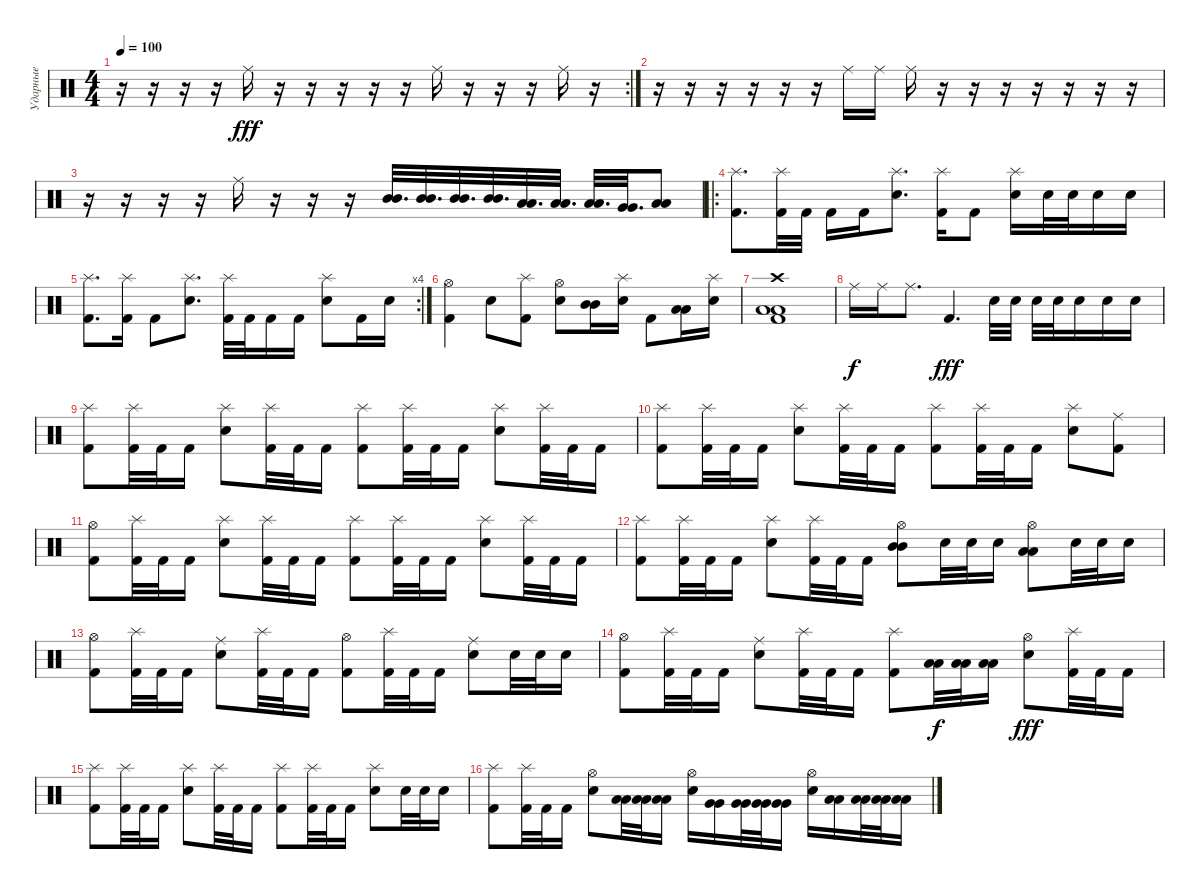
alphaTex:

\track ("Ударные" "Ударные") {instrument percussion}
\staff {score}
\articulation defaults
\rc 2
\ts (4 4)
\tempo 100
\clef neutral
\ks c
r.16{dy fff} r.16 r.16 r.16 "Ride (middle)".16 r.16 r.16 r.16 r.16 r.16 "Ride (middle)".16 r.16 r.16 r.16 "Ride (middle)".16 r.16 |
r.16 r.16 r.16 r.16 r.16 r.16 "Ride (middle)".16 "Ride (middle)".16 "Ride (middle)".16 r.16 r.16 r.16 r.16 r.16 r.16 r.16 |
r.16 r.16 r.16 r.16 "Ride (middle)".16 r.16 r.16 r.16 ("Mid Tom (hit)" "Mid Tom (hit)").32{d} ("Mid Tom (hit)" "Mid Tom (hit)").32{d} ("Mid Tom (hit)" "Mid Tom (hit)").32{d} ("Mid Tom (hit)" "Mid Tom (hit)").32{d} ("Low Tom (hit)" "Low Tom (hit)").32{d} ("Low Tom (hit)" "Low Tom (hit)").32{d} ("Low Tom (hit)" "Low Tom (hit)").32{d} ("Very Low Tom (hit)" "Very Low Tom (hit)").32{d} ("Low Floor Tom (hit)" "Low Floor Tom (hit)").8 |
\ro
("Splash (hit)" "Kick (hit) 2").8{d} ("Splash (hit)" "Kick (hit) 2").32 "Kick (hit) 2".32 "Kick (hit) 2".16 "Kick (hit) 2".16 ("Splash (hit)" "Electric Snare (hit)").8{d} ("Splash (hit)" "Kick (hit) 2").16 "Kick (hit) 2".8 ("Splash (hit)" "Electric Snare (hit)").16 "Electric Snare (hit)".32 "Electric Snare (hit)".32 "Electric Snare (hit)".16 "Electric Snare (hit)".16 |
\rc 4
("Splash (hit)" "Kick (hit) 2").8{d} ("Splash (hit)" "Kick (hit) 2").16 "Kick (hit) 2".8 ("Splash (hit)" "Electric Snare (hit)").8{d} ("Splash (hit)" "Kick (hit) 2").32 "Kick (hit) 2".32 "Kick (hit) 2".16 "Kick (hit) 2".16 ("Splash (hit)" "Electric Snare (hit)").8 "Kick (hit) 2".16 "Electric Snare (hit)".16 |
("Hi-Hat (open)" "Kick (hit) 2").4 "Electric Snare (hit)".8 ("Splash (hit)" "Kick (hit) 2").8 ("Hi-Hat (open)" "Electric Snare (hit)").8 ("Mid Tom (hit)" "Mid Tom (hit)").16 ("Splash (hit)" "Electric Snare (hit)").16 "Kick (hit) 2".8 ("Low Tom (hit)" "Low Tom (hit)").16 ("Splash (hit)" "Electric Snare (hit)").16 |
("Crash high (hit)" "Low Floor Tom (hit)" "Low Floor Tom (hit)" "Kick (hit) 2").1 |
"Ride (middle)".16{dy f} "Ride (middle)".16 "Ride (middle)".8{d} "Kick (hit) 2".4{d dy fff} "Electric Snare (hit)".32 "Electric Snare (hit)".32 "Electric Snare (hit)".32 "Electric Snare (hit)".32 "Electric Snare (hit)".16 "Electric Snare (hit)".16 "Electric Snare (hit)".16 |
("Splash (hit)" "Kick (hit) 2").8 ("Splash (hit)" "Kick (hit) 2").32 "Kick (hit) 2".32 "Kick (hit) 2".16 ("Splash (hit)" "Electric Snare (hit)").8 ("Splash (hit)" "Kick (hit) 2").32 "Kick (hit) 2".32 "Kick (hit) 2".16 ("Splash (hit)" "Kick (hit) 2").8 ("Splash (hit)" "Kick (hit) 2").32 "Kick (hit) 2".32 "Kick (hit) 2".16 ("Splash (hit)" "Electric Snare (hit)").8 ("Splash (hit)" "Kick (hit) 2").32 "Kick (hit) 2".32 "Kick (hit) 2".16 |
("Splash (hit)" "Kick (hit) 2").8 ("Splash (hit)" "Kick (hit) 2").32 "Kick (hit) 2".32 "Kick (hit) 2".16 ("Splash (hit)" "Electric Snare (hit)").8 ("Splash (hit)" "Kick (hit) 2").32 "Kick (hit) 2".32 "Kick (hit) 2".16 ("Splash (hit)" "Kick (hit) 2").8 ("Splash (hit)" "Kick (hit) 2").32 "Kick (hit) 2".32 "Kick (hit) 2".16 ("Splash (hit)" "Electric Snare (hit)").8 ("Ride (middle)" "Kick (hit) 2").8 |
("Hi-Hat (open)" "Kick (hit) 2").8 ("Splash (hit)" "Kick (hit) 2").32 "Kick (hit) 2".32 "Kick (hit) 2".16 ("Splash (hit)" "Electric Snare (hit)").8 ("Splash (hit)" "Kick (hit) 2").32 "Kick (hit) 2".32 "Kick (hit) 2".16 ("Splash (hit)" "Kick (hit) 2").8 ("Splash (hit)" "Kick (hit) 2").32 "Kick (hit) 2".32 "Kick (hit) 2".16 ("Splash (hit)" "Electric Snare (hit)").8 ("Splash (hit)" "Kick (hit) 2").32 "Kick (hit) 2".32 "Kick (hit) 2".16 |
("Splash (hit)" "Kick (hit) 2").8 ("Splash (hit)" "Kick (hit) 2").32 "Kick (hit) 2".32 "Kick (hit) 2".16 ("Splash (hit)" "Electric Snare (hit)").8 ("Splash (hit)" "Kick (hit) 2").32 "Kick (hit) 2".32 "Kick (hit) 2".16 ("Hi-Hat (open)" "Mid Tom (hit)" "Mid Tom (hit)").8 "Electric Snare (hit)".32 "Electric Snare (hit)".32 "Electric Snare (hit)".16 ("Hi-Hat (open)" "Low Tom (hit)" "Low Tom (hit)").8 "Electric Snare (hit)".32 "Electric Snare (hit)".32 "Electric Snare (hit)".16 |
("Hi-Hat (open)" "Kick (hit) 2").8 ("Splash (hit)" "Kick (hit) 2").32 "Kick (hit) 2".32 "Kick (hit) 2".16 ("Ride (middle)" "Electric Snare (hit)").8 ("Splash (hit)" "Kick (hit) 2").32 "Kick (hit) 2".32 "Kick (hit) 2".16 ("Hi-Hat (open)" "Kick (hit) 2").8 ("Splash (hit)" "Kick (hit) 2").32 "Kick (hit) 2".32 "Kick (hit) 2".16 ("Ride (middle)" "Electric Snare (hit)").8 "Electric Snare (hit)".32 "Electric Snare (hit)".32 "Electric Snare (hit)".16 |
("Hi-Hat (open)" "Kick (hit) 2").8 ("Splash (hit)" "Kick (hit) 2").32 "Kick (hit) 2".32 "Kick (hit) 2".16 ("Ride (middle)" "Electric Snare (hit)").8 ("Splash (hit)" "Kick (hit) 2").32 "Kick (hit) 2".32 "Kick (hit) 2".16 ("Splash (hit)" "Kick (hit) 2").8 ("Low Floor Tom (hit)" "Low Floor Tom (hit)").32{dy f} ("Low Floor Tom (hit)" "Low Floor Tom (hit)").32 ("Low Floor Tom (hit)" "Low Floor Tom (hit)").16 ("Hi-Hat (open)" "Electric Snare (hit)").8{dy fff} ("Splash (hit)" "Kick (hit) 2").32 "Kick (hit) 2".32 "Kick (hit) 2".16 |
("Splash (hit)" "Kick (hit) 2").8 ("Splash (hit)" "Kick (hit) 2").32 "Kick (hit) 2".32 "Kick (hit) 2".16 ("Splash (hit)" "Electric Snare (hit)").8 ("Splash (hit)" "Kick (hit) 2").32 "Kick (hit) 2".32 "Kick (hit) 2".16 ("Splash (hit)" "Kick (hit) 2").8 ("Splash (hit)" "Kick (hit) 2").32 "Kick (hit) 2".32 "Kick (hit) 2".16 ("Splash (hit)" "Electric Snare (hit)").8 "Electric Snare (hit)".32 "Electric Snare (hit)".32 "Electric Snare (hit)".16 |
("Splash (hit)" "Kick (hit) 2").8 ("Splash (hit)" "Kick (hit) 2").32 "Kick (hit) 2".32 "Kick (hit) 2".16 ("Hi-Hat (open)" "Electric Snare (hit)").8 ("Low Tom (hit)" "Low Tom (hit)").32 ("Low Tom (hit)" "Low Tom (hit)").32 ("Low Tom (hit)" "Low Tom (hit)").16 ("Hi-Hat (open)" "Electric Snare (hit)").16 ("Very Low Tom (hit)" "Very Low Tom (hit)").16 ("Very Low Tom (hit)" "Very Low Tom (hit)").32 ("Very Low Tom (hit)" "Very Low Tom (hit)").32 ("Very Low Tom (hit)" "Very Low Tom (hit)").16 ("Hi-Hat (open)" "Electric Snare (hit)").16 ("Low Floor Tom (hit)" "Low Floor Tom (hit)").16 ("Low Floor Tom (hit)" "Low Floor Tom (hit)").32 ("Low Floor Tom (hit)" "Low Floor Tom (hit)").32 ("Low Floor Tom (hit)" "Low Floor Tom (hit)").16
